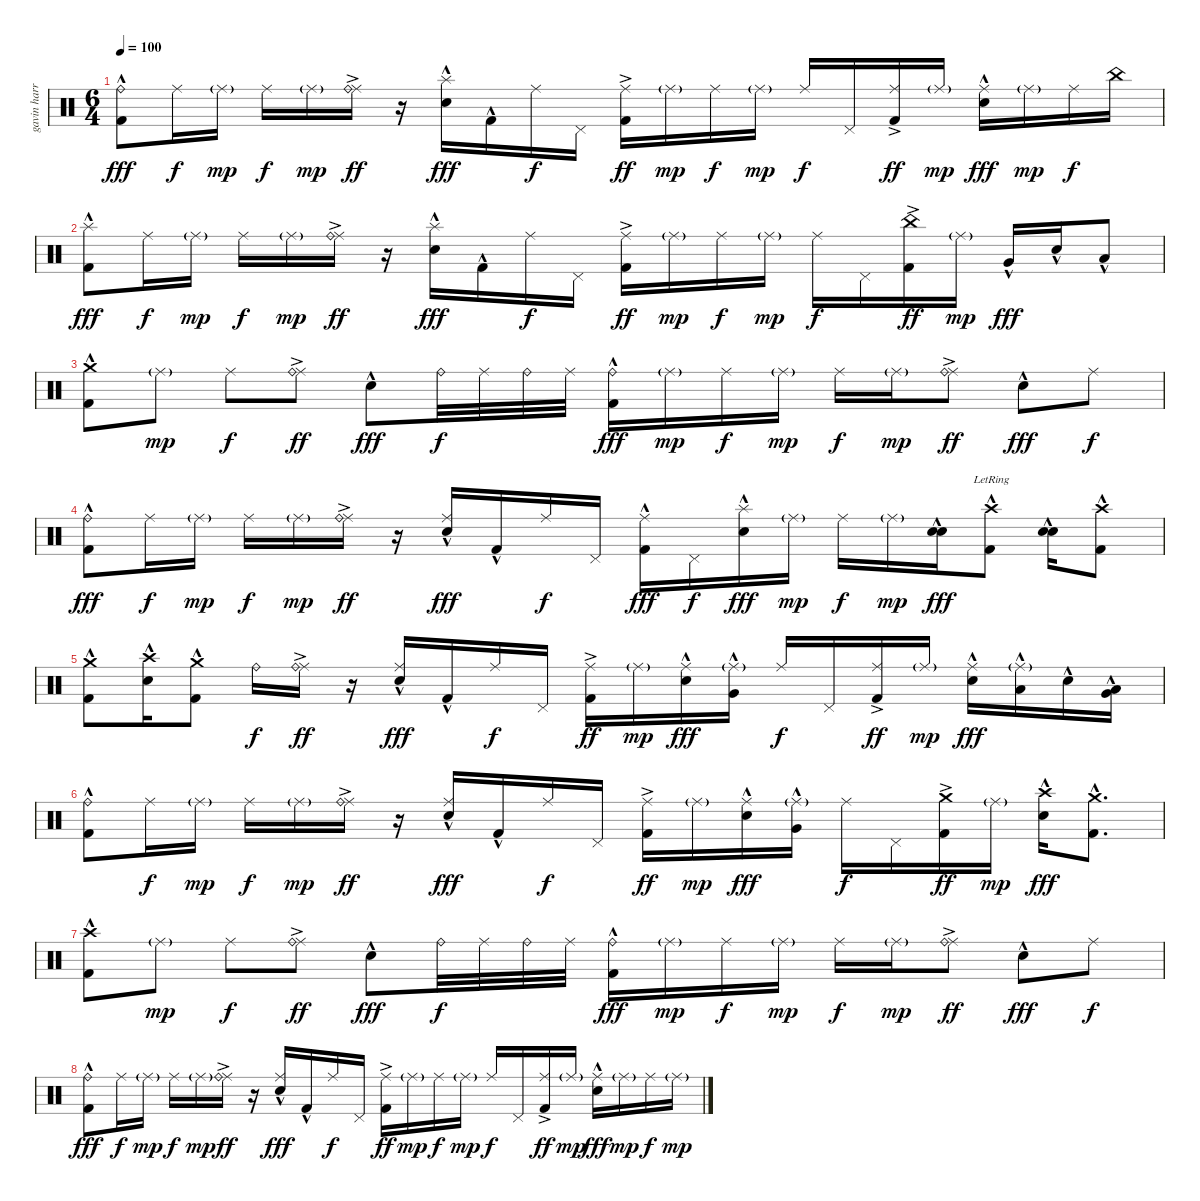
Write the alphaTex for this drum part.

\track ("gavin harrison" "gavin harr") {instrument percussion}
\staff {score}
\articulation defaults
\ts (6 4)
\tempo 100
\clef neutral
\ks c
("Ride (bell)" "Kick (hit) 2"{hac}).8{dy fff} "Ride (middle)".16{dy f} "Ride (middle)"{g}.16{dy mp} "Ride (middle)".16{dy f} "Ride (middle)"{g}.16{dy mp} ("Ride (middle)"{ac} "Ride (bell)").16{dy ff} r.16 ("Splash (hit)" "Electric Snare (hit)"{hac}).16{dy fff} "Kick (hit) 2"{hac}.16 "Ride (middle)".16{dy f} "Pedal Hi-Hat (hit)".16 ("Ride (middle)" "Kick (hit) 2"{ac}).16{dy ff} "Ride (middle)"{g}.16{dy mp} "Ride (middle)".16{dy f} "Ride (middle)"{g}.16{dy mp} "Ride (middle)".16{dy f} "Pedal Hi-Hat (hit)".16 ("Ride (middle)" "Kick (hit) 2"{ac}).16{dy ff} "Ride (middle)"{g}.16{dy mp} ("Ride (middle)" "Electric Snare (hit)"{hac}).16{dy fff} "Ride (middle)"{g}.16{dy mp} "Ride (middle)".16{dy f} "China (hit)".16 |
("Splash (hit)" "Kick (hit) 2"{hac}).8{dy fff} "Ride (middle)".16{dy f} "Ride (middle)"{g}.16{dy mp} "Ride (middle)".16{dy f} "Ride (middle)"{g}.16{dy mp} ("Ride (middle)"{ac} "Ride (bell)").16{dy ff} r.16 ("Splash (hit)" "Electric Snare (hit)"{hac}).16{dy fff} "Kick (hit) 2"{hac}.16 "Ride (middle)".16{dy f} "Pedal Hi-Hat (hit)".16 ("Ride (middle)" "Kick (hit) 2"{ac}).16{dy ff} "Ride (middle)"{g}.16{dy mp} "Ride (middle)".16{dy f} "Ride (middle)"{g}.16{dy mp} "Ride (middle)".16{dy f} "Pedal Hi-Hat (hit)".16 ("China (hit)" "Kick (hit) 2"{ac}).16{dy ff} "Ride (middle)"{g}.16{dy mp} "Very Low Tom (hit)"{hac}.16{dy fff} "Electric Snare (hit)"{hac}.16 "Low Floor Tom (hit)"{hac}.8 |
("Crash medium (hit)" "Kick (hit) 2"{hac}).8 "Ride (middle)"{g}.8{dy mp} "Ride (middle)".8{dy f} ("Ride (middle)"{ac} "Ride (bell)").8{dy ff} "Electric Snare (hit)"{hac}.8{dy fff} "Ride (bell)".32{dy f} "Ride (middle)".32 "Ride (bell)".32 "Ride (middle)".32 ("Ride (bell)" "Kick (hit) 2"{hac}).16{dy fff} "Ride (middle)"{g}.16{dy mp} "Ride (middle)".16{dy f} "Ride (middle)"{g}.16{dy mp} "Ride (middle)".16{dy f} "Ride (middle)"{g}.16{dy mp} ("Ride (middle)" "Ride (bell)"{ac}).8{dy ff} "Electric Snare (hit)"{hac}.8{dy fff} "Ride (middle)".8{dy f} |
("Ride (bell)" "Kick (hit) 2"{hac}).8{dy fff} "Ride (middle)".16{dy f} "Ride (middle)"{g}.16{dy mp} "Ride (middle)".16{dy f} "Ride (middle)"{g}.16{dy mp} ("Ride (middle)"{ac} "Ride (bell)").16{dy ff} r.16 ("Ride (middle)" "Electric Snare (hit)"{hac}).16{dy fff} "Kick (hit) 2"{hac}.16 "Ride (middle)".16{dy f} "Pedal Hi-Hat (hit)".16 ("Ride (middle)" "Kick (hit) 2"{hac}).16{dy fff} "Pedal Hi-Hat (hit)".16{dy f} ("Splash (hit)" "Electric Snare (hit)"{hac}).16{dy fff} "Ride (middle)"{g}.16{dy mp} "Ride (middle)".16{dy f} "Ride (middle)"{g}.16{dy mp} ("Electric Snare (hit)"{hac} "Electric Snare (hit)").16{dy fff} ("Crash high (hit)" "Kick (hit) 2"{hac lr}).8 ("Electric Snare (hit)"{hac} "Electric Snare (hit)").16 ("Crash high (hit)" "Kick (hit) 2"{hac}).8 |
("Crash medium (hit)" "Kick (hit) 2"{hac}).8 ("Crash high (hit)" "Electric Snare (hit)"{hac}).16 ("Crash medium (hit)" "Kick (hit) 2"{hac}).8 "Ride (bell)".16{dy f} ("Ride (middle)"{ac} "Ride (bell)").16{dy ff} r.16 ("Ride (middle)" "Electric Snare (hit)"{hac}).16{dy fff} "Kick (hit) 2"{hac}.16 "Ride (middle)".16{dy f} "Pedal Hi-Hat (hit)".16 ("Ride (middle)" "Kick (hit) 2"{ac}).16{dy ff} "Ride (middle)"{g}.16{dy mp} ("Ride (middle)" "Electric Snare (hit)"{hac}).16{dy fff} ("Ride (middle)"{g} "Very Low Tom (hit)"{hac}).16 "Ride (middle)".16{dy f} "Pedal Hi-Hat (hit)".16 ("Ride (middle)" "Kick (hit) 2"{ac}).16{dy ff} "Ride (middle)"{g}.16{dy mp} ("Ride (middle)" "Electric Snare (hit)"{hac}).16{dy fff} ("Ride (middle)"{g} "Low Floor Tom (hit)"{hac}).16 "Electric Snare (hit)"{hac}.16 ("Low Floor Tom (hit)" "Very Low Tom (hit)"{hac}).16 |
("Ride (bell)" "Kick (hit) 2"{hac}).8 "Ride (middle)".16{dy f} "Ride (middle)"{g}.16{dy mp} "Ride (middle)".16{dy f} "Ride (middle)"{g}.16{dy mp} ("Ride (middle)"{ac} "Ride (bell)").16{dy ff} r.16 ("Ride (middle)" "Electric Snare (hit)"{hac}).16{dy fff} "Kick (hit) 2"{hac}.16 "Ride (middle)".16{dy f} "Pedal Hi-Hat (hit)".16 ("Ride (middle)" "Kick (hit) 2"{ac}).16{dy ff} "Ride (middle)"{g}.16{dy mp} ("Ride (middle)" "Electric Snare (hit)"{hac}).16{dy fff} ("Ride (middle)"{g} "Very Low Tom (hit)"{hac}).16 "Ride (middle)".16{dy f} "Pedal Hi-Hat (hit)".16 ("Crash medium (hit)" "Kick (hit) 2"{ac}).16{dy ff} "Ride (middle)"{g}.16{dy mp} ("Crash high (hit)" "Electric Snare (hit)"{hac}).16{dy fff} ("Crash medium (hit)" "Kick (hit) 2"{hac}).8{d} |
("Crash high (hit)" "Kick (hit) 2"{hac}).8 "Ride (middle)"{g}.8{dy mp} "Ride (middle)".8{dy f} ("Ride (middle)"{ac} "Ride (bell)").8{dy ff} "Electric Snare (hit)"{hac}.8{dy fff} "Ride (bell)".32{dy f} "Ride (middle)".32 "Ride (bell)".32 "Ride (middle)".32 ("Ride (bell)" "Kick (hit) 2"{hac}).16{dy fff} "Ride (middle)"{g}.16{dy mp} "Ride (middle)".16{dy f} "Ride (middle)"{g}.16{dy mp} "Ride (middle)".16{dy f} "Ride (middle)"{g}.16{dy mp} ("Ride (middle)" "Ride (bell)"{ac}).8{dy ff} "Electric Snare (hit)"{hac}.8{dy fff} "Ride (middle)".8{dy f} |
("Ride (bell)" "Kick (hit) 2"{hac}).8{dy fff} "Ride (middle)".16{dy f} "Ride (middle)"{g}.16{dy mp} "Ride (middle)".16{dy f} "Ride (middle)"{g}.16{dy mp} ("Ride (middle)"{ac} "Ride (bell)").16{dy ff} r.16 ("Ride (middle)" "Electric Snare (hit)"{hac}).16{dy fff} "Kick (hit) 2"{hac}.16 "Ride (middle)".16{dy f} "Pedal Hi-Hat (hit)".16 ("Ride (middle)" "Kick (hit) 2"{ac}).16{dy ff} "Ride (middle)"{g}.16{dy mp} "Ride (middle)".16{dy f} "Ride (middle)"{g}.16{dy mp} "Ride (middle)".16{dy f} "Pedal Hi-Hat (hit)".16 ("Ride (middle)" "Kick (hit) 2"{ac}).16{dy ff} "Ride (middle)"{g}.16{dy mp} ("Ride (middle)" "Electric Snare (hit)"{hac}).16{dy fff} "Ride (middle)"{g}.16{dy mp} "Ride (middle)".16{dy f} "Ride (middle)"{g}.16{dy mp}
